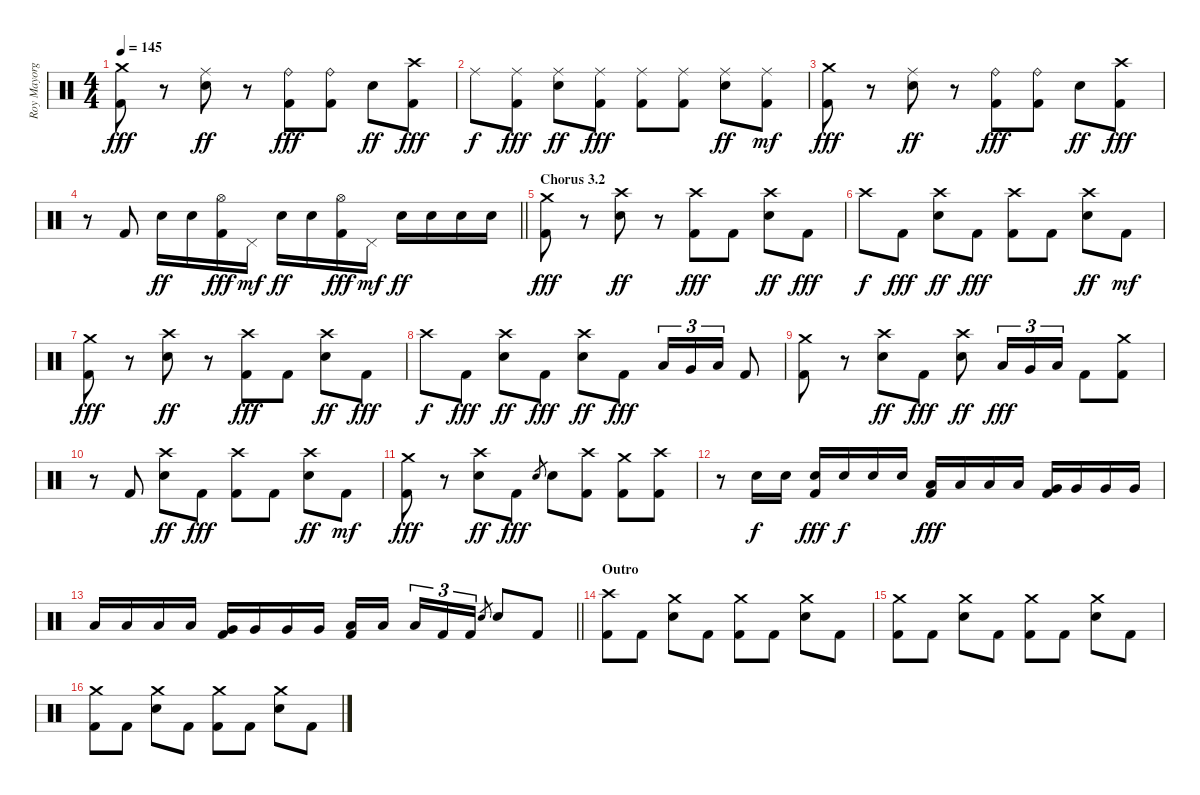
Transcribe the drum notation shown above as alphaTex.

\track ("Roy Mayorga" "Roy Mayorg") {instrument percussion}
\staff {score}
\articulation defaults
\ts (4 4)
\tempo 145
\clef neutral
\ks c
("Crash medium (hit)" "Kick (hit) 2").8{dy fff} r.8 ("Ride (middle)" "Electric Snare (hit)").8{dy ff} r.8 ("Ride (bell)" "Kick (hit) 2").8{dy fff} ("Ride (bell)" "Kick (hit) 2").8 "Electric Snare (hit)".8{dy ff} ("Crash high (hit)" "Kick (hit) 2").8{dy fff} |
"Ride (middle)".8{dy f} ("Ride (middle)" "Kick (hit) 2").8{dy fff} ("Ride (middle)" "Electric Snare (hit)").8{dy ff} ("Ride (middle)" "Kick (hit) 2").8{dy fff} ("Ride (middle)" "Kick (hit) 2").8 ("Ride (middle)" "Kick (hit) 2").8 ("Ride (middle)" "Electric Snare (hit)").8{dy ff} ("Ride (middle)" "Kick (hit) 2").8{dy mf} |
("Crash medium (hit)" "Kick (hit) 2").8{dy fff} r.8 ("Ride (middle)" "Electric Snare (hit)").8{dy ff} r.8 ("Ride (bell)" "Kick (hit) 2").8{dy fff} ("Ride (bell)" "Kick (hit) 2").8 "Electric Snare (hit)".8{dy ff} ("Crash high (hit)" "Kick (hit) 2").8{dy fff} |
\barLineRight lightlight
r.8 "Kick (hit) 2".8 "Electric Snare (hit)".16{dy ff} "Electric Snare (hit)".16 ("Hi-Hat (open)" "Kick (hit) 2").16{dy fff} "Pedal Hi-Hat (hit)".16{dy mf} "Electric Snare (hit)".16{dy ff} "Electric Snare (hit)".16 ("Hi-Hat (open)" "Kick (hit) 2").16{dy fff} "Pedal Hi-Hat (hit)".16{dy mf} "Electric Snare (hit)".16{dy ff} "Electric Snare (hit)".16 "Electric Snare (hit)".16 "Electric Snare (hit)".16 |
\section ("" "Chorus 3.2")
("Crash medium (hit)" "Kick (hit) 2").8{dy fff} r.8 ("Crash high (hit)" "Electric Snare (hit)").8{dy ff} r.8 ("Crash high (hit)" "Kick (hit) 2").8{dy fff} "Kick (hit) 2".8 ("Crash high (hit)" "Electric Snare (hit)").8{dy ff} "Kick (hit) 2".8{dy fff} |
"Crash high (hit)".8{dy f} "Kick (hit) 2".8{dy fff} ("Crash high (hit)" "Electric Snare (hit)").8{dy ff} "Kick (hit) 2".8{dy fff} ("Crash high (hit)" "Kick (hit) 2").8 "Kick (hit) 2".8 ("Crash high (hit)" "Electric Snare (hit)").8{dy ff} "Kick (hit) 2".8{dy mf} |
("Crash medium (hit)" "Kick (hit) 2").8{dy fff} r.8 ("Crash high (hit)" "Electric Snare (hit)").8{dy ff} r.8 ("Crash high (hit)" "Kick (hit) 2").8{dy fff} "Kick (hit) 2".8 ("Crash high (hit)" "Electric Snare (hit)").8{dy ff} "Kick (hit) 2".8{dy fff} |
"Crash high (hit)".8{dy f} "Kick (hit) 2".8{dy fff} ("Crash high (hit)" "Electric Snare (hit)").8{dy ff} "Kick (hit) 2".8{dy fff} ("Crash high (hit)" "Electric Snare (hit)").8{dy ff} "Kick (hit) 2".8{dy fff} "Low Tom (hit)".16{tu (3 2)} "Very Low Tom (hit)".16{tu (3 2)} "Low Floor Tom (hit)".16{tu (3 2)} "Kick (hit) 2".8 |
("Crash medium (hit)" "Kick (hit) 2").8 r.8 ("Crash high (hit)" "Electric Snare (hit)").8{dy ff} "Kick (hit) 2".8{dy fff} ("Crash high (hit)" "Electric Snare (hit)").8{dy ff} "Low Tom (hit)".16{tu (3 2) dy fff} "Very Low Tom (hit)".16{tu (3 2)} "Low Floor Tom (hit)".16{tu (3 2)} "Kick (hit) 2".8 ("Crash medium (hit)" "Kick (hit) 2").8 |
r.8 "Kick (hit) 2".8 ("Crash high (hit)" "Electric Snare (hit)").8{dy ff} "Kick (hit) 2".8{dy fff} ("Crash high (hit)" "Kick (hit) 2").8 "Kick (hit) 2".8 ("Crash high (hit)" "Electric Snare (hit)").8{dy ff} "Kick (hit) 2".8{dy mf} |
("Crash medium (hit)" "Kick (hit) 2").8{dy fff} r.8 ("Crash high (hit)" "Electric Snare (hit)").8{dy ff} "Kick (hit) 2".8{dy fff} "Electric Snare (hit)".8{gr} "Electric Snare (hit)".8 ("Crash high (hit)" "Kick (hit) 2").8 ("Crash medium (hit)" "Kick (hit) 2").8 ("Crash high (hit)" "Kick (hit) 2").8 |
r.8 "Electric Snare (hit)".16{dy f} "Electric Snare (hit)".16 ("Electric Snare (hit)" "Kick (hit) 2").16{dy fff} "Electric Snare (hit)".16{dy f} "Electric Snare (hit)".16 "Electric Snare (hit)".16 ("Low Tom (hit)" "Kick (hit) 2").16{dy fff} "Low Tom (hit)".16 "Low Tom (hit)".16 "Low Tom (hit)".16 ("Very Low Tom (hit)" "Kick (hit) 2").16 "Very Low Tom (hit)".16 "Very Low Tom (hit)".16 "Very Low Tom (hit)".16 |
\barLineRight lightlight "Low Tom (hit)".16 "Low Tom (hit)".16 "Low Tom (hit)".16 "Low Tom (hit)".16
("Very Low Tom (hit)" "Kick (hit) 2").16 "Very Low Tom (hit)".16 "Very Low Tom (hit)".16 "Very Low Tom (hit)".16 ("Low Floor Tom (hit)" "Kick (hit) 2").16 "Low Floor Tom (hit)".16{beam splitsecondary} "Low Floor Tom (hit)".16{tu (3 2)} "Kick (hit) 2".16{tu (3 2)} "Kick (hit) 2".16{tu (3 2)} "Electric Snare (hit)".8{gr} "Electric Snare (hit)".8 "Kick (hit) 2".8 |
\section ("" "Outro")
("Crash high (hit)" "Kick (hit) 2").8 "Kick (hit) 2".8 ("Crash medium (hit)" "Electric Snare (hit)").8 "Kick (hit) 2".8 ("Crash medium (hit)" "Kick (hit) 2").8 "Kick (hit) 2".8 ("Crash medium (hit)" "Electric Snare (hit)").8 "Kick (hit) 2".8 |
("Crash medium (hit)" "Kick (hit) 2").8 "Kick (hit) 2".8 ("Crash medium (hit)" "Electric Snare (hit)").8 "Kick (hit) 2".8 ("Crash medium (hit)" "Kick (hit) 2").8 "Kick (hit) 2".8 ("Crash medium (hit)" "Electric Snare (hit)").8 "Kick (hit) 2".8 |
("Crash medium (hit)" "Kick (hit) 2").8 "Kick (hit) 2".8 ("Crash medium (hit)" "Electric Snare (hit)").8 "Kick (hit) 2".8 ("Crash medium (hit)" "Kick (hit) 2").8 "Kick (hit) 2".8 ("Crash medium (hit)" "Electric Snare (hit)").8 "Kick (hit) 2".8
